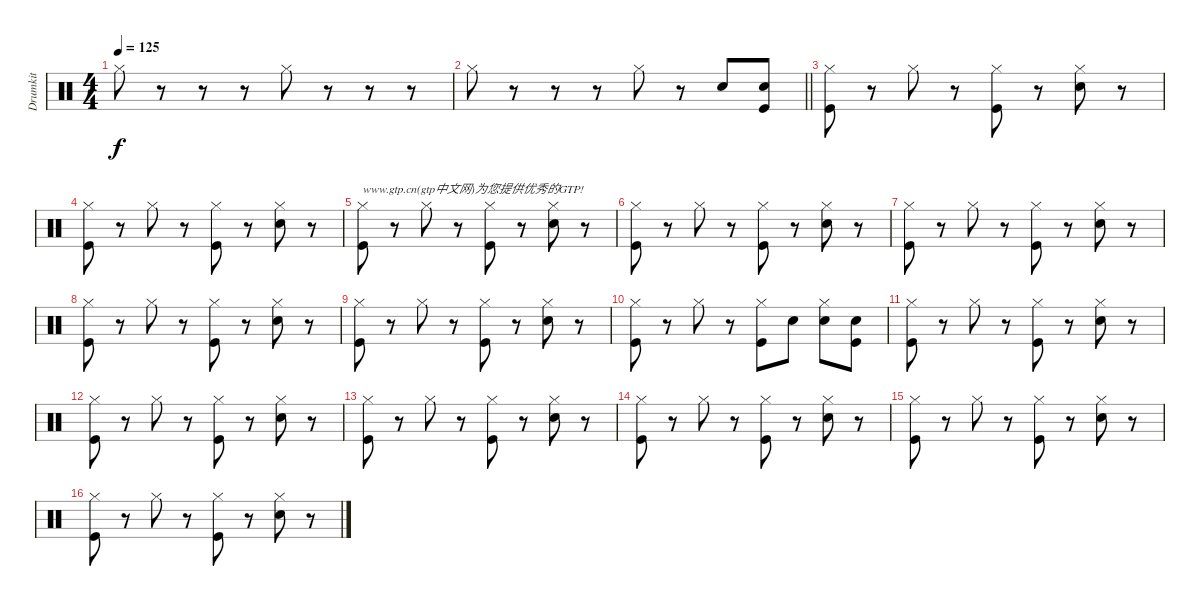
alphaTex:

\track ("Drumkit" "Drumkit") {instrument percussion}
\staff {score}
\articulation defaults
\ts (4 4)
\tempo 125
\clef neutral
\ks c "Hi-Hat (closed)".8{dy f}
r.8 r.8 r.8 "Hi-Hat (closed)".8 r.8 r.8 r.8 |
\barLineRight lightlight "Hi-Hat (closed)".8
r.8 r.8 r.8 "Hi-Hat (closed)".8 r.8 "Snare (hit) 2".8 ("Snare (hit) 2" "Kick (hit)").8 |
("Kick (hit)" "Hi-Hat (closed)").8 r.8 "Hi-Hat (closed)".8 r.8 ("Kick (hit)" "Hi-Hat (closed)").8 r.8 ("Snare (hit) 2" "Hi-Hat (closed)").8 r.8 |
("Kick (hit)" "Hi-Hat (closed)").8 r.8 "Hi-Hat (closed)".8 r.8 ("Kick (hit)" "Hi-Hat (closed)").8 r.8 ("Snare (hit) 2" "Hi-Hat (closed)").8 r.8 |
("Kick (hit)" "Hi-Hat (closed)").8{txt "www.gtp.cn(gtp中文网)为您提供优秀的GTP!"} r.8 "Hi-Hat (closed)".8 r.8 ("Kick (hit)" "Hi-Hat (closed)").8 r.8 ("Snare (hit) 2" "Hi-Hat (closed)").8 r.8 |
("Kick (hit)" "Hi-Hat (closed)").8 r.8 "Hi-Hat (closed)".8 r.8 ("Kick (hit)" "Hi-Hat (closed)").8 r.8 ("Snare (hit) 2" "Hi-Hat (closed)").8 r.8 |
("Kick (hit)" "Hi-Hat (closed)").8 r.8 "Hi-Hat (closed)".8 r.8 ("Kick (hit)" "Hi-Hat (closed)").8 r.8 ("Snare (hit) 2" "Hi-Hat (closed)").8 r.8 |
("Kick (hit)" "Hi-Hat (closed)").8 r.8 "Hi-Hat (closed)".8 r.8 ("Kick (hit)" "Hi-Hat (closed)").8 r.8 ("Snare (hit) 2" "Hi-Hat (closed)").8 r.8 |
("Kick (hit)" "Hi-Hat (closed)").8 r.8 "Hi-Hat (closed)".8 r.8 ("Kick (hit)" "Hi-Hat (closed)").8 r.8 ("Snare (hit) 2" "Hi-Hat (closed)").8 r.8 |
("Kick (hit)" "Hi-Hat (closed)").8 r.8 "Hi-Hat (closed)".8 r.8 ("Kick (hit)" "Hi-Hat (closed)").8 "Snare (hit) 2".8 ("Snare (hit) 2" "Hi-Hat (closed)").8 ("Snare (hit) 2" "Kick (hit)").8 |
("Kick (hit)" "Hi-Hat (closed)").8 r.8 "Hi-Hat (closed)".8 r.8 ("Kick (hit)" "Hi-Hat (closed)").8 r.8 ("Snare (hit) 2" "Hi-Hat (closed)").8 r.8 |
("Kick (hit)" "Hi-Hat (closed)").8 r.8 "Hi-Hat (closed)".8 r.8 ("Kick (hit)" "Hi-Hat (closed)").8 r.8 ("Snare (hit) 2" "Hi-Hat (closed)").8 r.8 |
("Kick (hit)" "Hi-Hat (closed)").8 r.8 "Hi-Hat (closed)".8 r.8 ("Kick (hit)" "Hi-Hat (closed)").8 r.8 ("Snare (hit) 2" "Hi-Hat (closed)").8 r.8 |
("Kick (hit)" "Hi-Hat (closed)").8 r.8 "Hi-Hat (closed)".8 r.8 ("Kick (hit)" "Hi-Hat (closed)").8 r.8 ("Snare (hit) 2" "Hi-Hat (closed)").8 r.8 |
("Kick (hit)" "Hi-Hat (closed)").8 r.8 "Hi-Hat (closed)".8 r.8 ("Kick (hit)" "Hi-Hat (closed)").8 r.8 ("Snare (hit) 2" "Hi-Hat (closed)").8 r.8 |
("Kick (hit)" "Hi-Hat (closed)").8 r.8 "Hi-Hat (closed)".8 r.8 ("Kick (hit)" "Hi-Hat (closed)").8 r.8 ("Snare (hit) 2" "Hi-Hat (closed)").8 r.8
